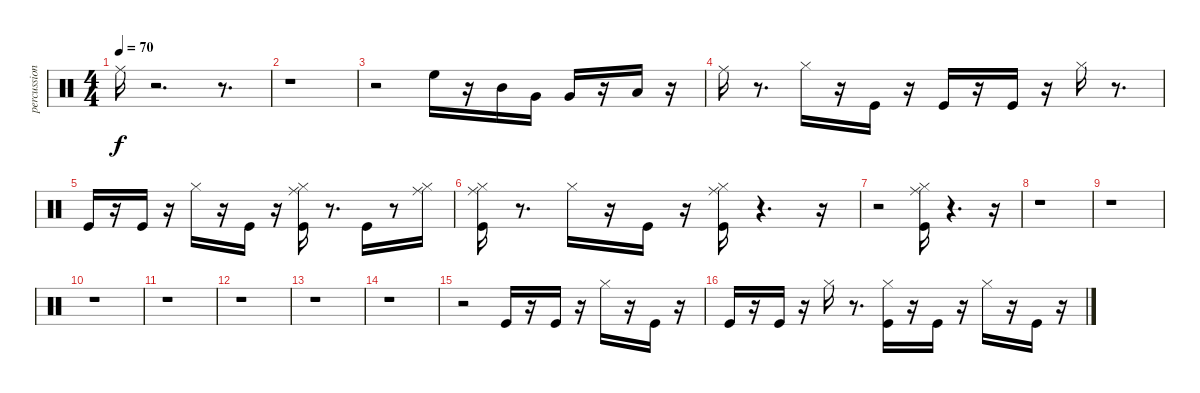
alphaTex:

\track ("percussion" "percussion") {instrument percussion}
\staff {score}
\articulation defaults
\ts (4 4)
\tempo 70
\clef neutral
\ks c "Ride (middle)".16{dy f}
r.2{d} r.8{d} |
r.1 |
r.2 "High Floor Tom (hit)".16 r.16 "Mid Tom (hit)".16 "Very Low Tom (hit)".16 "Very Low Tom (hit)".16 r.16 "Low Floor Tom (hit)".16 r.16 |
"Ride (middle)".16 r.8{d} "Hi-Hat (closed)".16 r.16 "Kick (hit)".16 r.16 "Kick (hit)".16 r.16 "Kick (hit)".16 r.16 "Hi-Hat (closed)".16 r.8{d} |
"Kick (hit)".16 r.16 "Kick (hit)".16 r.16 "Hi-Hat (closed)".16 r.16 "Kick (hit)".16 r.16 ("Ride (middle)" "Kick (hit)" "Hi-Hat (closed)").16 r.8{d} "Kick (hit)".16 r.8 ("Ride (middle)" "Hi-Hat (closed)").16 |
("Ride (middle)" "Kick (hit)" "Hi-Hat (closed)").16 r.8{d} "Hi-Hat (closed)".16 r.16 "Kick (hit)".16 r.16 ("Kick (hit)" "Ride (middle)" "Hi-Hat (closed)").16 r.4{d} r.16 |
r.2 ("Kick (hit)" "Ride (middle)" "Hi-Hat (closed)").16 r.4{d} r.16 |
r.1 |
r.1 |
r.1 |
r.1 |
r.1 |
r.1 |
r.1 |
r.2 "Kick (hit)".16 r.16 "Kick (hit)".16 r.16 "Hi-Hat (closed)".16 r.16 "Kick (hit)".16 r.16 |
"Kick (hit)".16 r.16 "Kick (hit)".16 r.16 "Hi-Hat (closed)".16 r.8{d} ("Hi-Hat (closed)" "Kick (hit)").16 r.16 "Kick (hit)".16 r.16 "Hi-Hat (closed)".16 r.16 "Kick (hit)".16 r.16
